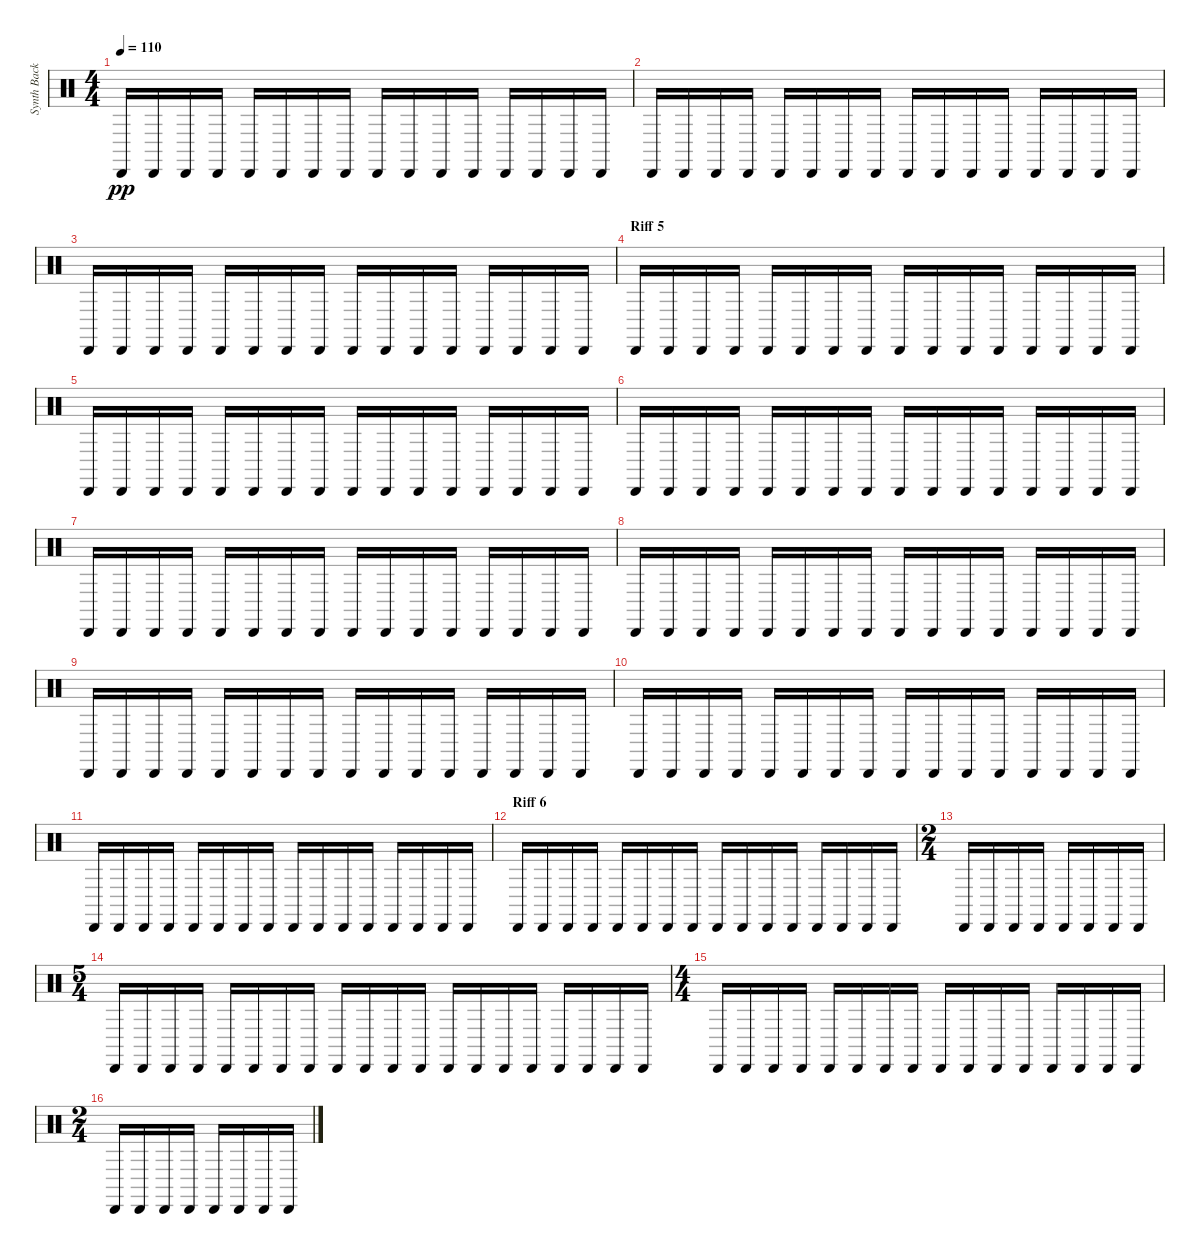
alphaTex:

\track ("Synth Background Rhythm" "Synth Back") {instrument percussion}
\staff {score}
\articulation defaults
\ts (4 4)
\tempo 110
\clef neutral
\ks c "Cabasa (hit)".16{dy pp} "Cabasa (hit)".16 "Cabasa (hit)".16 "Cabasa (hit)".16 "Cabasa (hit)".16 "Cabasa (hit)".16 "Cabasa (hit)".16 "Cabasa (hit)".16 "Cabasa (hit)".16 "Cabasa (hit)".16 "Cabasa (hit)".16 "Cabasa (hit)".16 "Cabasa (hit)".16 "Cabasa (hit)".16 "Cabasa (hit)".16 "Cabasa (hit)".16
|
"Cabasa (hit)".16 "Cabasa (hit)".16 "Cabasa (hit)".16 "Cabasa (hit)".16 "Cabasa (hit)".16 "Cabasa (hit)".16 "Cabasa (hit)".16 "Cabasa (hit)".16 "Cabasa (hit)".16 "Cabasa (hit)".16 "Cabasa (hit)".16 "Cabasa (hit)".16 "Cabasa (hit)".16 "Cabasa (hit)".16 "Cabasa (hit)".16 "Cabasa (hit)".16 |
"Cabasa (hit)".16 "Cabasa (hit)".16 "Cabasa (hit)".16 "Cabasa (hit)".16 "Cabasa (hit)".16 "Cabasa (hit)".16 "Cabasa (hit)".16 "Cabasa (hit)".16 "Cabasa (hit)".16 "Cabasa (hit)".16 "Cabasa (hit)".16 "Cabasa (hit)".16 "Cabasa (hit)".16 "Cabasa (hit)".16 "Cabasa (hit)".16 "Cabasa (hit)".16 |
\section ("" "Riff 5")
"Cabasa (hit)".16 "Cabasa (hit)".16 "Cabasa (hit)".16 "Cabasa (hit)".16 "Cabasa (hit)".16 "Cabasa (hit)".16 "Cabasa (hit)".16 "Cabasa (hit)".16 "Cabasa (hit)".16 "Cabasa (hit)".16 "Cabasa (hit)".16 "Cabasa (hit)".16 "Cabasa (hit)".16 "Cabasa (hit)".16 "Cabasa (hit)".16 "Cabasa (hit)".16 |
"Cabasa (hit)".16 "Cabasa (hit)".16 "Cabasa (hit)".16 "Cabasa (hit)".16 "Cabasa (hit)".16 "Cabasa (hit)".16 "Cabasa (hit)".16 "Cabasa (hit)".16 "Cabasa (hit)".16 "Cabasa (hit)".16 "Cabasa (hit)".16 "Cabasa (hit)".16 "Cabasa (hit)".16 "Cabasa (hit)".16 "Cabasa (hit)".16 "Cabasa (hit)".16 |
"Cabasa (hit)".16 "Cabasa (hit)".16 "Cabasa (hit)".16 "Cabasa (hit)".16 "Cabasa (hit)".16 "Cabasa (hit)".16 "Cabasa (hit)".16 "Cabasa (hit)".16 "Cabasa (hit)".16 "Cabasa (hit)".16 "Cabasa (hit)".16 "Cabasa (hit)".16 "Cabasa (hit)".16 "Cabasa (hit)".16 "Cabasa (hit)".16 "Cabasa (hit)".16 |
"Cabasa (hit)".16 "Cabasa (hit)".16 "Cabasa (hit)".16 "Cabasa (hit)".16 "Cabasa (hit)".16 "Cabasa (hit)".16 "Cabasa (hit)".16 "Cabasa (hit)".16 "Cabasa (hit)".16 "Cabasa (hit)".16 "Cabasa (hit)".16 "Cabasa (hit)".16 "Cabasa (hit)".16 "Cabasa (hit)".16 "Cabasa (hit)".16 "Cabasa (hit)".16 |
"Cabasa (hit)".16 "Cabasa (hit)".16 "Cabasa (hit)".16 "Cabasa (hit)".16 "Cabasa (hit)".16 "Cabasa (hit)".16 "Cabasa (hit)".16 "Cabasa (hit)".16 "Cabasa (hit)".16 "Cabasa (hit)".16 "Cabasa (hit)".16 "Cabasa (hit)".16 "Cabasa (hit)".16 "Cabasa (hit)".16 "Cabasa (hit)".16 "Cabasa (hit)".16 |
"Cabasa (hit)".16 "Cabasa (hit)".16 "Cabasa (hit)".16 "Cabasa (hit)".16 "Cabasa (hit)".16 "Cabasa (hit)".16 "Cabasa (hit)".16 "Cabasa (hit)".16 "Cabasa (hit)".16 "Cabasa (hit)".16 "Cabasa (hit)".16 "Cabasa (hit)".16 "Cabasa (hit)".16 "Cabasa (hit)".16 "Cabasa (hit)".16 "Cabasa (hit)".16 |
"Cabasa (hit)".16 "Cabasa (hit)".16 "Cabasa (hit)".16 "Cabasa (hit)".16 "Cabasa (hit)".16 "Cabasa (hit)".16 "Cabasa (hit)".16 "Cabasa (hit)".16 "Cabasa (hit)".16 "Cabasa (hit)".16 "Cabasa (hit)".16 "Cabasa (hit)".16 "Cabasa (hit)".16 "Cabasa (hit)".16 "Cabasa (hit)".16 "Cabasa (hit)".16 |
"Cabasa (hit)".16 "Cabasa (hit)".16 "Cabasa (hit)".16 "Cabasa (hit)".16 "Cabasa (hit)".16 "Cabasa (hit)".16 "Cabasa (hit)".16 "Cabasa (hit)".16 "Cabasa (hit)".16 "Cabasa (hit)".16 "Cabasa (hit)".16 "Cabasa (hit)".16 "Cabasa (hit)".16 "Cabasa (hit)".16 "Cabasa (hit)".16 "Cabasa (hit)".16 |
\section ("" "Riff 6")
"Cabasa (hit)".16 "Cabasa (hit)".16 "Cabasa (hit)".16 "Cabasa (hit)".16 "Cabasa (hit)".16 "Cabasa (hit)".16 "Cabasa (hit)".16 "Cabasa (hit)".16 "Cabasa (hit)".16 "Cabasa (hit)".16 "Cabasa (hit)".16 "Cabasa (hit)".16 "Cabasa (hit)".16 "Cabasa (hit)".16 "Cabasa (hit)".16 "Cabasa (hit)".16 |
\ts (2 4)
"Cabasa (hit)".16 "Cabasa (hit)".16 "Cabasa (hit)".16 "Cabasa (hit)".16 "Cabasa (hit)".16 "Cabasa (hit)".16 "Cabasa (hit)".16 "Cabasa (hit)".16 |
\ts (5 4)
"Cabasa (hit)".16 "Cabasa (hit)".16 "Cabasa (hit)".16 "Cabasa (hit)".16 "Cabasa (hit)".16 "Cabasa (hit)".16 "Cabasa (hit)".16 "Cabasa (hit)".16 "Cabasa (hit)".16 "Cabasa (hit)".16 "Cabasa (hit)".16 "Cabasa (hit)".16 "Cabasa (hit)".16 "Cabasa (hit)".16 "Cabasa (hit)".16 "Cabasa (hit)".16 "Cabasa (hit)".16 "Cabasa (hit)".16 "Cabasa (hit)".16 "Cabasa (hit)".16 |
\ts (4 4)
"Cabasa (hit)".16 "Cabasa (hit)".16 "Cabasa (hit)".16 "Cabasa (hit)".16 "Cabasa (hit)".16 "Cabasa (hit)".16 "Cabasa (hit)".16 "Cabasa (hit)".16 "Cabasa (hit)".16 "Cabasa (hit)".16 "Cabasa (hit)".16 "Cabasa (hit)".16 "Cabasa (hit)".16 "Cabasa (hit)".16 "Cabasa (hit)".16 "Cabasa (hit)".16 |
\ts (2 4)
"Cabasa (hit)".16 "Cabasa (hit)".16 "Cabasa (hit)".16 "Cabasa (hit)".16 "Cabasa (hit)".16 "Cabasa (hit)".16 "Cabasa (hit)".16 "Cabasa (hit)".16
